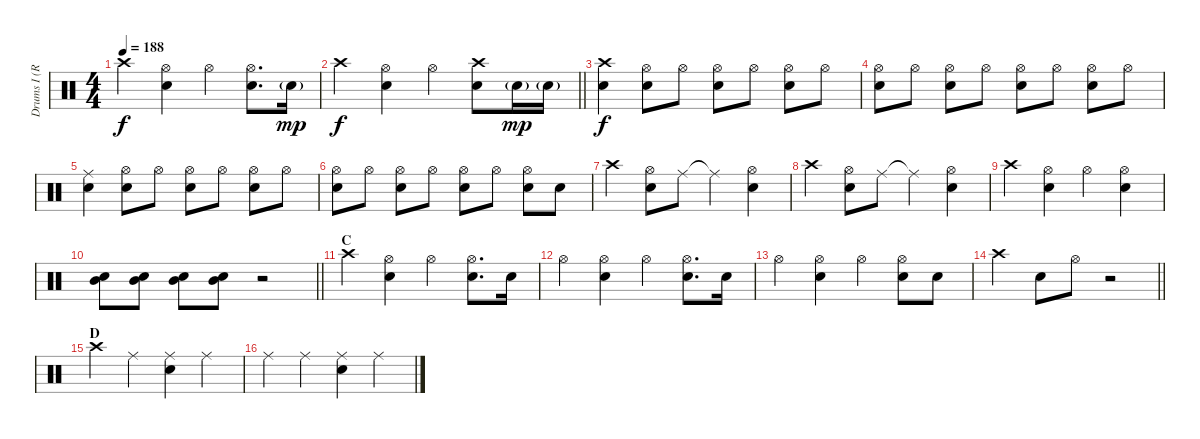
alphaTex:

\track ("Drums I (Ruka)" "Drums I (R") {instrument percussion}
\staff {score}
\articulation defaults
\ts (4 4)
\tempo 188
\clef neutral
\ks c "Crash high (hit)".4{dy f}
("Hi-Hat (open)" "Snare (hit) 2").4 "Hi-Hat (open)".4 ("Hi-Hat (open)" "Snare (hit) 2").8{d} "Snare (hit) 2"{g}.16{dy mp} |
\barLineRight lightlight "Crash high (hit)".4{dy f}
("Hi-Hat (open)" "Snare (hit) 2").4 "Hi-Hat (open)".4 ("Crash high (hit)" "Snare (hit) 2").8 "Snare (hit) 2"{g}.16{dy mp} "Snare (hit) 2"{g}.16 |
("Crash high (hit)" "Snare (hit) 2").4{dy f} ("Hi-Hat (open)" "Snare (hit) 2").8 "Hi-Hat (open)".8 ("Hi-Hat (open)" "Snare (hit) 2").8 "Hi-Hat (open)".8 ("Hi-Hat (open)" "Snare (hit) 2").8 "Hi-Hat (open)".8 |
("Hi-Hat (open)" "Snare (hit) 2").8 "Hi-Hat (open)".8 ("Hi-Hat (open)" "Snare (hit) 2").8 "Hi-Hat (open)".8 ("Hi-Hat (open)" "Snare (hit) 2").8 "Hi-Hat (open)".8 ("Hi-Hat (open)" "Snare (hit) 2").8 "Hi-Hat (open)".8 |
("Ride (middle)" "Snare (hit) 2").4 ("Hi-Hat (open)" "Snare (hit) 2").8 "Hi-Hat (open)".8 ("Hi-Hat (open)" "Snare (hit) 2").8 "Hi-Hat (open)".8 ("Hi-Hat (open)" "Snare (hit) 2").8 "Hi-Hat (open)".8 |
("Hi-Hat (open)" "Snare (hit) 2").8 "Hi-Hat (open)".8 ("Hi-Hat (open)" "Snare (hit) 2").8 "Hi-Hat (open)".8 ("Hi-Hat (open)" "Snare (hit) 2").8 "Hi-Hat (open)".8 ("Hi-Hat (open)" "Snare (hit) 2").8 "Snare (hit) 2".8 |
"Crash high (hit)".4 ("Hi-Hat (open)" "Snare (hit) 2").8 "Ride (middle)".8 "Ride (middle)"{t}.4 ("Hi-Hat (open)" "Snare (hit) 2").4 |
"Crash high (hit)".4 ("Hi-Hat (open)" "Snare (hit) 2").8 "Ride (middle)".8 "Ride (middle)"{t}.4 ("Hi-Hat (open)" "Snare (hit) 2").4 |
"Crash high (hit)".4 ("Hi-Hat (open)" "Snare (hit) 2").4 "Hi-Hat (open)".4 ("Hi-Hat (open)" "Snare (hit) 2").4 |
\barLineRight lightlight
("Mid Tom (hit)" "Snare (hit) 2").8 ("Mid Tom (hit)" "Snare (hit) 2").8 ("Mid Tom (hit)" "Snare (hit) 2").8 ("Mid Tom (hit)" "Snare (hit) 2").8 r.2 |
\section ("" "C")
"Crash high (hit)".4 ("Hi-Hat (open)" "Snare (hit) 2").4 "Hi-Hat (open)".4 ("Hi-Hat (open)" "Snare (hit) 2").8{d} "Snare (hit) 2".16 |
"Hi-Hat (open)".4 ("Hi-Hat (open)" "Snare (hit) 2").4 "Hi-Hat (open)".4 ("Hi-Hat (open)" "Snare (hit) 2").8{d} "Snare (hit) 2".16 |
"Hi-Hat (open)".4 ("Hi-Hat (open)" "Snare (hit) 2").4 "Hi-Hat (open)".4 ("Hi-Hat (open)" "Snare (hit) 2").8 "Snare (hit) 2".8 |
\barLineRight lightlight "Crash high (hit)".4 "Snare (hit) 2".8 "Hi-Hat (open)".8
r.2 |
\section ("" "D")
"Crash high (hit)".4 "Ride (middle)".4 ("Ride (middle)" "Snare (hit) 2").4 "Ride (middle)".4 |
"Ride (middle)".4 "Ride (middle)".4 ("Ride (middle)" "Snare (hit) 2").4 "Ride (middle)".4
